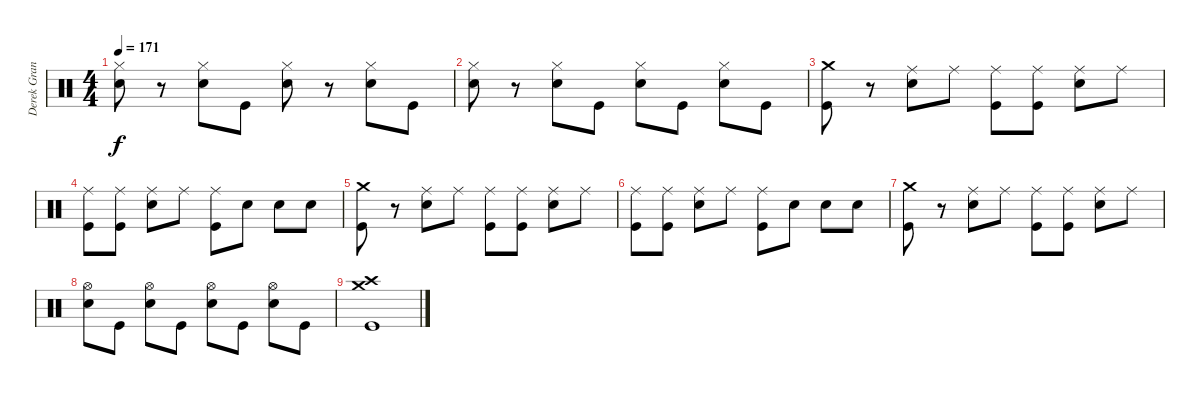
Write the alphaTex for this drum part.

\track ("Derek Grant" "Derek Gran") {instrument percussion}
\staff {score}
\articulation defaults
\ts (4 4)
\tempo 171
\clef neutral
\ks c
("Hi-Hat (closed)" "Electric Snare (hit)").8{dy f} r.8 ("Hi-Hat (closed)" "Electric Snare (hit)").8 "Kick (hit)".8 ("Hi-Hat (closed)" "Electric Snare (hit)").8 r.8 ("Hi-Hat (closed)" "Electric Snare (hit)").8 "Kick (hit)".8 |
("Hi-Hat (closed)" "Electric Snare (hit)").8 r.8 ("Hi-Hat (closed)" "Electric Snare (hit)").8 "Kick (hit)".8 ("Hi-Hat (closed)" "Electric Snare (hit)").8 "Kick (hit)".8 ("Hi-Hat (closed)" "Electric Snare (hit)").8 "Kick (hit)".8 |
("Crash medium (hit)" "Kick (hit)").8 r.8 ("Ride (middle)" "Electric Snare (hit)").8 "Ride (middle)".8 ("Ride (middle)" "Kick (hit)").8 ("Ride (middle)" "Kick (hit)").8 ("Ride (middle)" "Electric Snare (hit)").8 "Ride (middle)".8 |
("Ride (middle)" "Kick (hit)").8 ("Ride (middle)" "Kick (hit)").8 ("Ride (middle)" "Electric Snare (hit)").8 "Ride (middle)".8 ("Ride (middle)" "Kick (hit)").8 "Electric Snare (hit)".8 "Electric Snare (hit)".8 "Electric Snare (hit)".8 |
("Crash medium (hit)" "Kick (hit)").8 r.8 ("Ride (middle)" "Electric Snare (hit)").8 "Ride (middle)".8 ("Ride (middle)" "Kick (hit)").8 ("Ride (middle)" "Kick (hit)").8 ("Ride (middle)" "Electric Snare (hit)").8 "Ride (middle)".8 |
("Ride (middle)" "Kick (hit)").8 ("Ride (middle)" "Kick (hit)").8 ("Ride (middle)" "Electric Snare (hit)").8 "Ride (middle)".8 ("Ride (middle)" "Kick (hit)").8 "Electric Snare (hit)".8 "Electric Snare (hit)".8 "Electric Snare (hit)".8 |
("Crash medium (hit)" "Kick (hit)").8 r.8 ("Ride (middle)" "Electric Snare (hit)").8 "Ride (middle)".8 ("Ride (middle)" "Kick (hit)").8 ("Ride (middle)" "Kick (hit)").8 ("Ride (middle)" "Electric Snare (hit)").8 "Ride (middle)".8 |
("Hi-Hat (open)" "Electric Snare (hit)").8 "Kick (hit)".8 ("Hi-Hat (open)" "Electric Snare (hit)").8 "Kick (hit)".8 ("Hi-Hat (open)" "Electric Snare (hit)").8 "Kick (hit)".8 ("Hi-Hat (open)" "Electric Snare (hit)").8 "Kick (hit)".8 |
("Crash high (hit)" "Crash medium (hit)" "Kick (hit)").1
